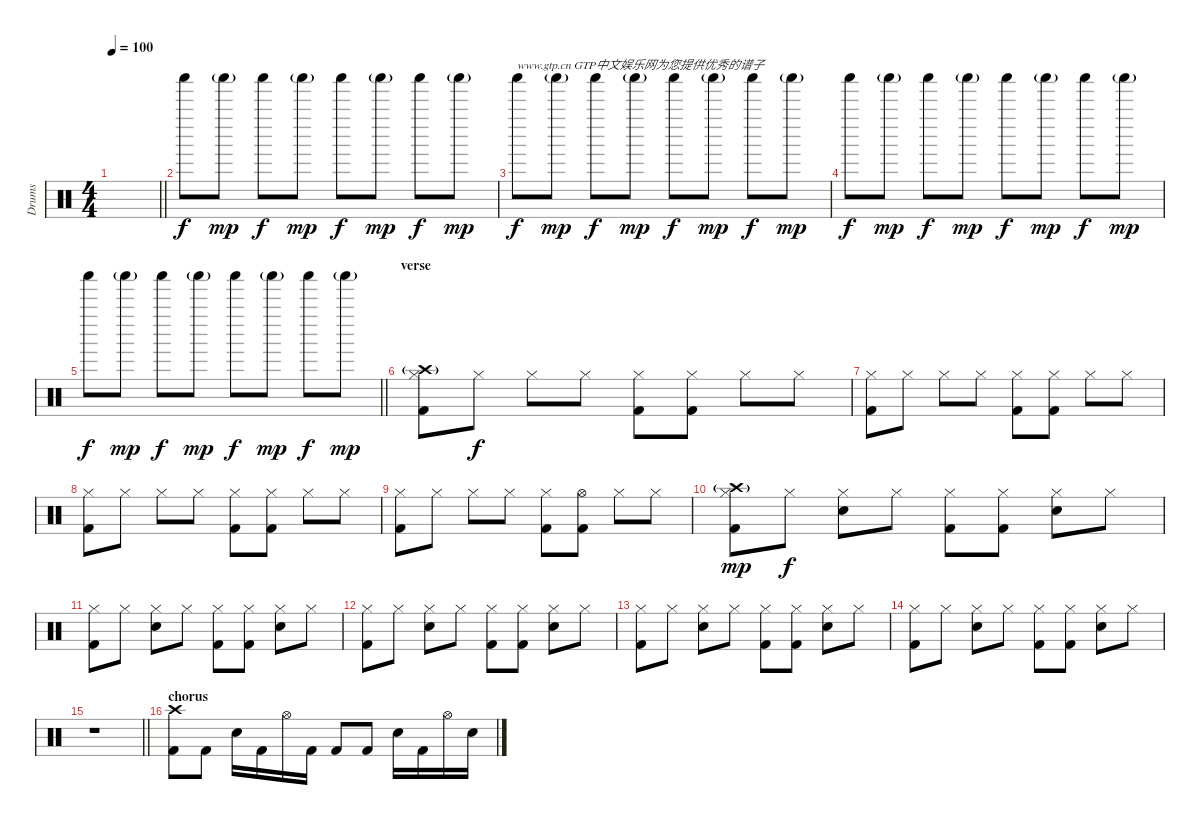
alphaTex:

\track ("Drums" "Drums") {instrument percussion}
\staff {score}
\articulation defaults
\ts (4 4)
\tempo 100
\clef neutral
\barLineRight lightlight
\ks c
|
"Shaker (hit)".8 "Shaker (hit)"{g}.8{dy mp} "Shaker (hit)".8{dy f} "Shaker (hit)"{g}.8{dy mp} "Shaker (hit)".8{dy f} "Shaker (hit)"{g}.8{dy mp} "Shaker (hit)".8{dy f} "Shaker (hit)"{g}.8{dy mp} |
"Shaker (hit)".8{txt "www.gtp.cn GTP中文娱乐网为您提供优秀的谱子" dy f} "Shaker (hit)"{g}.8{dy mp} "Shaker (hit)".8{dy f} "Shaker (hit)"{g}.8{dy mp} "Shaker (hit)".8{dy f} "Shaker (hit)"{g}.8{dy mp} "Shaker (hit)".8{dy f} "Shaker (hit)"{g}.8{dy mp} |
"Shaker (hit)".8{dy f} "Shaker (hit)"{g}.8{dy mp} "Shaker (hit)".8{dy f} "Shaker (hit)"{g}.8{dy mp} "Shaker (hit)".8{dy f} "Shaker (hit)"{g}.8{dy mp} "Shaker (hit)".8{dy f} "Shaker (hit)"{g}.8{dy mp} |
\barLineRight lightlight "Shaker (hit)".8{dy f} "Shaker (hit)"{g}.8{dy mp} "Shaker (hit)".8{dy f} "Shaker (hit)"{g}.8{dy mp} "Shaker (hit)".8{dy f} "Shaker (hit)"{g}.8{dy mp} "Shaker (hit)".8{dy f} "Shaker (hit)"{g}.8{dy mp}
|
\section ("" "verse")
("Crash high (hit)"{g} "Hi-Hat (closed)" "Kick (hit) 2").8 "Hi-Hat (closed)".8{dy f} "Hi-Hat (closed)".8 "Hi-Hat (closed)".8 ("Hi-Hat (closed)" "Kick (hit) 2").8 ("Hi-Hat (closed)" "Kick (hit) 2").8 "Hi-Hat (closed)".8 "Hi-Hat (closed)".8 |
("Hi-Hat (closed)" "Kick (hit) 2").8 "Hi-Hat (closed)".8 "Hi-Hat (closed)".8 "Hi-Hat (closed)".8 ("Hi-Hat (closed)" "Kick (hit) 2").8 ("Hi-Hat (closed)" "Kick (hit) 2").8 "Hi-Hat (closed)".8 "Hi-Hat (closed)".8 |
("Hi-Hat (closed)" "Kick (hit) 2").8 "Hi-Hat (closed)".8 "Hi-Hat (closed)".8 "Hi-Hat (closed)".8 ("Hi-Hat (closed)" "Kick (hit) 2").8 ("Hi-Hat (closed)" "Kick (hit) 2").8 "Hi-Hat (closed)".8 "Hi-Hat (closed)".8 |
("Hi-Hat (closed)" "Kick (hit) 2").8 "Hi-Hat (closed)".8 "Hi-Hat (closed)".8 "Hi-Hat (closed)".8 ("Hi-Hat (closed)" "Kick (hit) 2").8 ("Hi-Hat (open)" "Kick (hit) 2").8 "Hi-Hat (closed)".8 "Hi-Hat (closed)".8 |
("Crash high (hit)"{g} "Hi-Hat (closed)" "Kick (hit) 2").8{dy mp} "Hi-Hat (closed)".8{dy f} ("Hi-Hat (closed)" "Snare (hit) 2").8 "Hi-Hat (closed)".8 ("Hi-Hat (closed)" "Kick (hit) 2").8 ("Hi-Hat (closed)" "Kick (hit) 2").8 ("Hi-Hat (closed)" "Snare (hit) 2").8 "Hi-Hat (closed)".8 |
("Hi-Hat (closed)" "Kick (hit) 2").8 "Hi-Hat (closed)".8 ("Hi-Hat (closed)" "Snare (hit) 2").8 "Hi-Hat (closed)".8 ("Hi-Hat (closed)" "Kick (hit) 2").8 ("Hi-Hat (closed)" "Kick (hit) 2").8 ("Hi-Hat (closed)" "Snare (hit) 2").8 "Hi-Hat (closed)".8 |
("Hi-Hat (closed)" "Kick (hit) 2").8 "Hi-Hat (closed)".8 ("Hi-Hat (closed)" "Snare (hit) 2").8 "Hi-Hat (closed)".8 ("Hi-Hat (closed)" "Kick (hit) 2").8 ("Hi-Hat (closed)" "Kick (hit) 2").8 ("Hi-Hat (closed)" "Snare (hit) 2").8 "Hi-Hat (closed)".8 |
("Hi-Hat (closed)" "Kick (hit) 2").8 "Hi-Hat (closed)".8 ("Hi-Hat (closed)" "Snare (hit) 2").8 "Hi-Hat (closed)".8 ("Hi-Hat (closed)" "Kick (hit) 2").8 ("Hi-Hat (closed)" "Kick (hit) 2").8 ("Hi-Hat (closed)" "Snare (hit) 2").8 "Hi-Hat (closed)".8 |
("Hi-Hat (closed)" "Kick (hit) 2").8 "Hi-Hat (closed)".8 ("Hi-Hat (closed)" "Snare (hit) 2").8 "Hi-Hat (closed)".8 ("Hi-Hat (closed)" "Kick (hit) 2").8 ("Hi-Hat (closed)" "Kick (hit) 2").8 ("Hi-Hat (closed)" "Snare (hit) 2").8 "Hi-Hat (closed)".8 |
\barLineRight lightlight
r.1 |
\section ("" "chorus")
("Crash high (hit)" "Kick (hit) 2").8 "Kick (hit) 2".8 "Snare (hit) 2".16 "Kick (hit) 2".16 "Hi-Hat (open)".16 "Kick (hit) 2".16 "Kick (hit) 2".8 "Kick (hit) 2".8 "Snare (hit) 2".16 "Kick (hit) 2".16 "Hi-Hat (open)".16 "Snare (hit) 2".16
